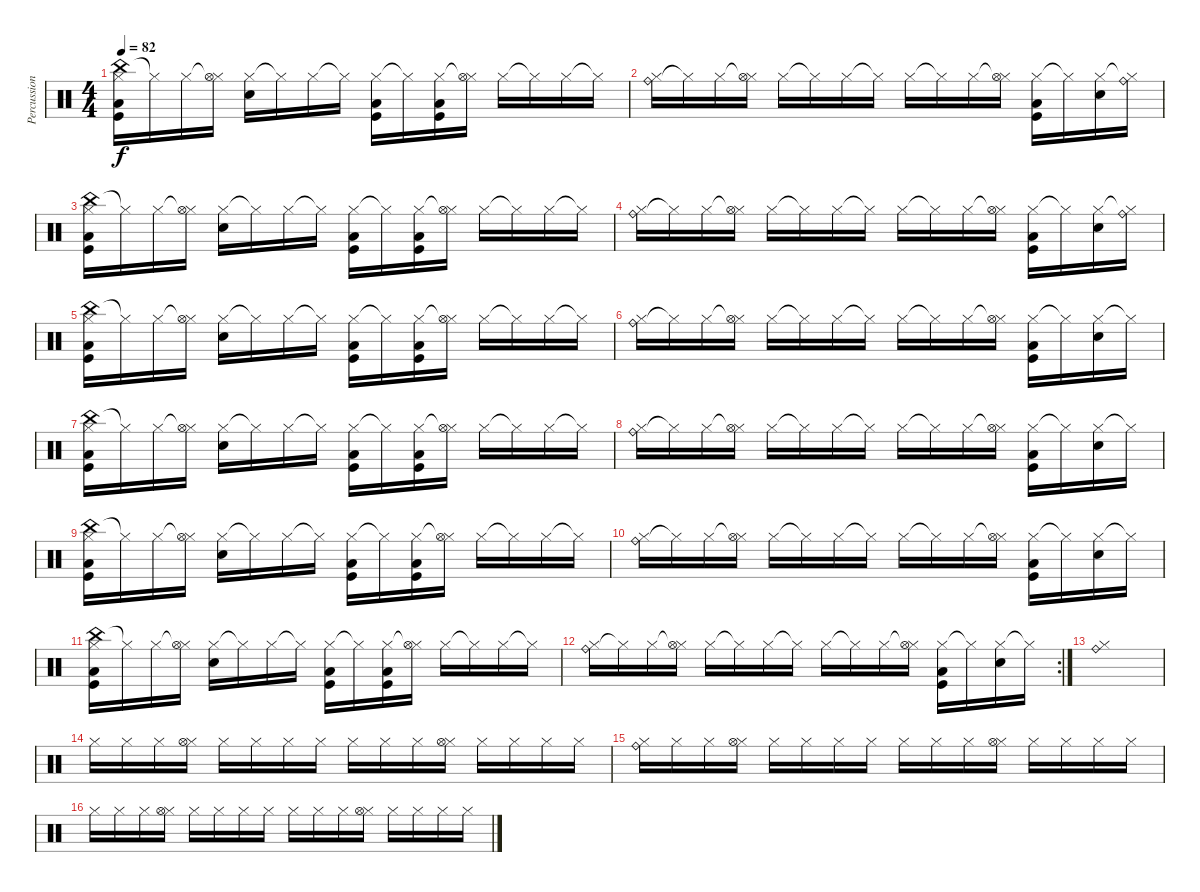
\track ("Percussions" "Percussion") {instrument percussion}
\staff {score}
\articulation defaults
\ts (4 4)
\tempo 82
\clef neutral
\ks c
("China (hit)" "Hi-Hat (closed)" "Low Floor Tom (hit)" "Kick (hit)").16{dy f} "Hi-Hat (closed)"{t}.16 "Hi-Hat (closed)".16 ("Hi-Hat (closed)"{t} "Hi-Hat (open)").16 ("Hi-Hat (closed)" "Snare (hit) 2").16 "Hi-Hat (closed)"{t}.16 "Hi-Hat (closed)".16 "Hi-Hat (closed)"{t}.16 ("Hi-Hat (closed)" "Low Floor Tom (hit)" "Kick (hit)").16 "Hi-Hat (closed)"{t}.16 ("Hi-Hat (closed)" "Low Floor Tom (hit)" "Kick (hit)").16 ("Hi-Hat (closed)"{t} "Hi-Hat (open)").16 "Hi-Hat (closed)".16 "Hi-Hat (closed)"{t}.16 "Hi-Hat (closed)".16 "Hi-Hat (closed)"{t}.16 |
("Ride (bell)" "Hi-Hat (closed)").16 "Hi-Hat (closed)"{t}.16 "Hi-Hat (closed)".16 ("Hi-Hat (closed)"{t} "Hi-Hat (open)").16 "Hi-Hat (closed)".16 "Hi-Hat (closed)"{t}.16 "Hi-Hat (closed)".16 "Hi-Hat (closed)"{t}.16 "Hi-Hat (closed)".16 "Hi-Hat (closed)"{t}.16 "Hi-Hat (closed)".16 ("Hi-Hat (closed)"{t} "Hi-Hat (open)").16 ("Hi-Hat (closed)" "Low Floor Tom (hit)" "Kick (hit)").16 "Hi-Hat (closed)"{t}.16 ("Hi-Hat (closed)" "Snare (hit) 2").16 ("Hi-Hat (closed)"{t} "Ride (bell)").16 |
("China (hit)" "Hi-Hat (closed)" "Low Floor Tom (hit)" "Kick (hit)").16 "Hi-Hat (closed)"{t}.16 "Hi-Hat (closed)".16 ("Hi-Hat (closed)"{t} "Hi-Hat (open)").16 ("Hi-Hat (closed)" "Snare (hit) 2").16 "Hi-Hat (closed)"{t}.16 "Hi-Hat (closed)".16 "Hi-Hat (closed)"{t}.16 ("Hi-Hat (closed)" "Low Floor Tom (hit)" "Kick (hit)").16 "Hi-Hat (closed)"{t}.16 ("Hi-Hat (closed)" "Low Floor Tom (hit)" "Kick (hit)").16 ("Hi-Hat (closed)"{t} "Hi-Hat (open)").16 "Hi-Hat (closed)".16 "Hi-Hat (closed)"{t}.16 "Hi-Hat (closed)".16 "Hi-Hat (closed)"{t}.16 |
("Ride (bell)" "Hi-Hat (closed)").16 "Hi-Hat (closed)"{t}.16 "Hi-Hat (closed)".16 ("Hi-Hat (closed)"{t} "Hi-Hat (open)").16 "Hi-Hat (closed)".16 "Hi-Hat (closed)"{t}.16 "Hi-Hat (closed)".16 "Hi-Hat (closed)"{t}.16 "Hi-Hat (closed)".16 "Hi-Hat (closed)"{t}.16 "Hi-Hat (closed)".16 ("Hi-Hat (closed)"{t} "Hi-Hat (open)").16 ("Hi-Hat (closed)" "Low Floor Tom (hit)" "Kick (hit)").16 "Hi-Hat (closed)"{t}.16 ("Hi-Hat (closed)" "Snare (hit) 2").16 ("Hi-Hat (closed)"{t} "Ride (bell)").16 |
("China (hit)" "Hi-Hat (closed)" "Low Floor Tom (hit)" "Kick (hit)").16 "Hi-Hat (closed)"{t}.16 "Hi-Hat (closed)".16 ("Hi-Hat (closed)"{t} "Hi-Hat (open)").16 ("Hi-Hat (closed)" "Snare (hit) 2").16 "Hi-Hat (closed)"{t}.16 "Hi-Hat (closed)".16 "Hi-Hat (closed)"{t}.16 ("Hi-Hat (closed)" "Low Floor Tom (hit)" "Kick (hit)").16 "Hi-Hat (closed)"{t}.16 ("Hi-Hat (closed)" "Low Floor Tom (hit)" "Kick (hit)").16 ("Hi-Hat (closed)"{t} "Hi-Hat (open)").16 "Hi-Hat (closed)".16 "Hi-Hat (closed)"{t}.16 "Hi-Hat (closed)".16 "Hi-Hat (closed)"{t}.16 |
("Ride (bell)" "Hi-Hat (closed)").16 "Hi-Hat (closed)"{t}.16 "Hi-Hat (closed)".16 ("Hi-Hat (closed)"{t} "Hi-Hat (open)").16 "Hi-Hat (closed)".16 "Hi-Hat (closed)"{t}.16 "Hi-Hat (closed)".16 "Hi-Hat (closed)"{t}.16 "Hi-Hat (closed)".16 "Hi-Hat (closed)"{t}.16 "Hi-Hat (closed)".16 ("Hi-Hat (closed)"{t} "Hi-Hat (open)").16 ("Hi-Hat (closed)" "Low Floor Tom (hit)" "Kick (hit)").16 "Hi-Hat (closed)"{t}.16 ("Hi-Hat (closed)" "Snare (hit) 2").16 "Hi-Hat (closed)"{t}.16 |
("China (hit)" "Hi-Hat (closed)" "Low Floor Tom (hit)" "Kick (hit)").16 "Hi-Hat (closed)"{t}.16 "Hi-Hat (closed)".16 ("Hi-Hat (closed)"{t} "Hi-Hat (open)").16 ("Hi-Hat (closed)" "Snare (hit) 2").16 "Hi-Hat (closed)"{t}.16 "Hi-Hat (closed)".16 "Hi-Hat (closed)"{t}.16 ("Hi-Hat (closed)" "Low Floor Tom (hit)" "Kick (hit)").16 "Hi-Hat (closed)"{t}.16 ("Hi-Hat (closed)" "Low Floor Tom (hit)" "Kick (hit)").16 ("Hi-Hat (closed)"{t} "Hi-Hat (open)").16 "Hi-Hat (closed)".16 "Hi-Hat (closed)"{t}.16 "Hi-Hat (closed)".16 "Hi-Hat (closed)"{t}.16 |
("Ride (bell)" "Hi-Hat (closed)").16 "Hi-Hat (closed)"{t}.16 "Hi-Hat (closed)".16 ("Hi-Hat (closed)"{t} "Hi-Hat (open)").16 "Hi-Hat (closed)".16 "Hi-Hat (closed)"{t}.16 "Hi-Hat (closed)".16 "Hi-Hat (closed)"{t}.16 "Hi-Hat (closed)".16 "Hi-Hat (closed)"{t}.16 "Hi-Hat (closed)".16 ("Hi-Hat (closed)"{t} "Hi-Hat (open)").16 ("Hi-Hat (closed)" "Low Floor Tom (hit)" "Kick (hit)").16 "Hi-Hat (closed)"{t}.16 ("Hi-Hat (closed)" "Snare (hit) 2").16 "Hi-Hat (closed)"{t}.16 |
("China (hit)" "Hi-Hat (closed)" "Low Floor Tom (hit)" "Kick (hit)").16 "Hi-Hat (closed)"{t}.16 "Hi-Hat (closed)".16 ("Hi-Hat (closed)"{t} "Hi-Hat (open)").16 ("Hi-Hat (closed)" "Snare (hit) 2").16 "Hi-Hat (closed)"{t}.16 "Hi-Hat (closed)".16 "Hi-Hat (closed)"{t}.16 ("Hi-Hat (closed)" "Low Floor Tom (hit)" "Kick (hit)").16 "Hi-Hat (closed)"{t}.16 ("Hi-Hat (closed)" "Low Floor Tom (hit)" "Kick (hit)").16 ("Hi-Hat (closed)"{t} "Hi-Hat (open)").16 "Hi-Hat (closed)".16 "Hi-Hat (closed)"{t}.16 "Hi-Hat (closed)".16 "Hi-Hat (closed)"{t}.16 |
("Ride (bell)" "Hi-Hat (closed)").16 "Hi-Hat (closed)"{t}.16 "Hi-Hat (closed)".16 ("Hi-Hat (closed)"{t} "Hi-Hat (open)").16 "Hi-Hat (closed)".16 "Hi-Hat (closed)"{t}.16 "Hi-Hat (closed)".16 "Hi-Hat (closed)"{t}.16 "Hi-Hat (closed)".16 "Hi-Hat (closed)"{t}.16 "Hi-Hat (closed)".16 ("Hi-Hat (closed)"{t} "Hi-Hat (open)").16 ("Hi-Hat (closed)" "Low Floor Tom (hit)" "Kick (hit)").16 "Hi-Hat (closed)"{t}.16 ("Hi-Hat (closed)" "Snare (hit) 2").16 "Hi-Hat (closed)"{t}.16 |
("China (hit)" "Hi-Hat (closed)" "Low Floor Tom (hit)" "Kick (hit)").16 "Hi-Hat (closed)"{t}.16 "Hi-Hat (closed)".16 ("Hi-Hat (closed)"{t} "Hi-Hat (open)").16 ("Hi-Hat (closed)" "Snare (hit) 2").16 "Hi-Hat (closed)"{t}.16 "Hi-Hat (closed)".16 "Hi-Hat (closed)"{t}.16 ("Hi-Hat (closed)" "Low Floor Tom (hit)" "Kick (hit)").16 "Hi-Hat (closed)"{t}.16 ("Hi-Hat (closed)" "Low Floor Tom (hit)" "Kick (hit)").16 ("Hi-Hat (closed)"{t} "Hi-Hat (open)").16 "Hi-Hat (closed)".16 "Hi-Hat (closed)"{t}.16 "Hi-Hat (closed)".16 "Hi-Hat (closed)"{t}.16 |
\rc 2
("Ride (bell)" "Hi-Hat (closed)").16 "Hi-Hat (closed)"{t}.16 "Hi-Hat (closed)".16 ("Hi-Hat (closed)"{t} "Hi-Hat (open)").16 "Hi-Hat (closed)".16 "Hi-Hat (closed)"{t}.16 "Hi-Hat (closed)".16 "Hi-Hat (closed)"{t}.16 "Hi-Hat (closed)".16 "Hi-Hat (closed)"{t}.16 "Hi-Hat (closed)".16 ("Hi-Hat (closed)"{t} "Hi-Hat (open)").16 ("Hi-Hat (closed)" "Low Floor Tom (hit)" "Kick (hit)").16 "Hi-Hat (closed)"{t}.16 ("Hi-Hat (closed)" "Snare (hit) 2").16 "Hi-Hat (closed)"{t}.16 |
("Ride (bell)" "Hi-Hat (closed)").1 |
"Hi-Hat (closed)".16 "Hi-Hat (closed)".16 "Hi-Hat (closed)".16 ("Hi-Hat (closed)" "Hi-Hat (open)").16 "Hi-Hat (closed)".16 "Hi-Hat (closed)".16 "Hi-Hat (closed)".16 "Hi-Hat (closed)".16 "Hi-Hat (closed)".16 "Hi-Hat (closed)".16 "Hi-Hat (closed)".16 ("Hi-Hat (closed)" "Hi-Hat (open)").16 "Hi-Hat (closed)".16 "Hi-Hat (closed)".16 "Hi-Hat (closed)".16 "Hi-Hat (closed)".16 |
("Ride (bell)" "Hi-Hat (closed)").16 "Hi-Hat (closed)".16 "Hi-Hat (closed)".16 ("Hi-Hat (closed)" "Hi-Hat (open)").16 "Hi-Hat (closed)".16 "Hi-Hat (closed)".16 "Hi-Hat (closed)".16 "Hi-Hat (closed)".16 "Hi-Hat (closed)".16 "Hi-Hat (closed)".16 "Hi-Hat (closed)".16 ("Hi-Hat (closed)" "Hi-Hat (open)").16 "Hi-Hat (closed)".16 "Hi-Hat (closed)".16 "Hi-Hat (closed)".16 "Hi-Hat (closed)".16 |
"Hi-Hat (closed)".16 "Hi-Hat (closed)".16 "Hi-Hat (closed)".16 ("Hi-Hat (closed)" "Hi-Hat (open)").16 "Hi-Hat (closed)".16 "Hi-Hat (closed)".16 "Hi-Hat (closed)".16 "Hi-Hat (closed)".16 "Hi-Hat (closed)".16 "Hi-Hat (closed)".16 "Hi-Hat (closed)".16 ("Hi-Hat (closed)" "Hi-Hat (open)").16 "Hi-Hat (closed)".16 "Hi-Hat (closed)".16 "Hi-Hat (closed)".16 "Hi-Hat (closed)".16
